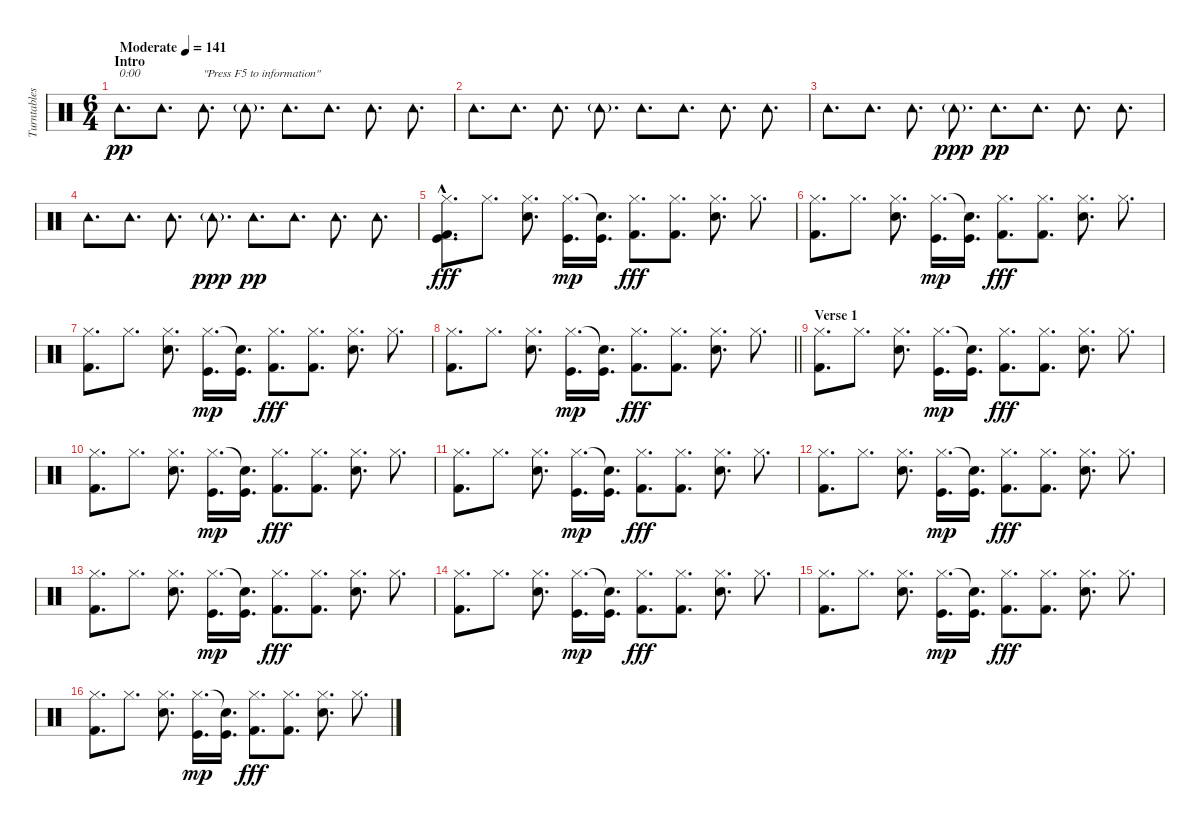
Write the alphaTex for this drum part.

\track ("Turntables" "Turntables") {instrument percussion}
\staff {score}
\articulation defaults
\ts (6 4)
\section ("" "Intro")
\tempo (141 "Moderate")
\clef neutral
\ks c "Tambourine (hit)".8{d txt "0:00" dy pp} "Tambourine (hit)".8{d} "Tambourine (hit)".8{d txt "\"Press F5 to information\""} "Tambourine (hit)"{g}.8{d} "Tambourine (hit)".8{d} "Tambourine (hit)".8{d} "Tambourine (hit)".8{d} "Tambourine (hit)".8{d}
|
"Tambourine (hit)".8{d} "Tambourine (hit)".8{d} "Tambourine (hit)".8{d} "Tambourine (hit)"{g}.8{d} "Tambourine (hit)".8{d} "Tambourine (hit)".8{d} "Tambourine (hit)".8{d} "Tambourine (hit)".8{d} |
"Tambourine (hit)".8{d} "Tambourine (hit)".8{d} "Tambourine (hit)".8{d} "Tambourine (hit)"{g}.8{d dy ppp} "Tambourine (hit)".8{d dy pp} "Tambourine (hit)".8{d} "Tambourine (hit)".8{d} "Tambourine (hit)".8{d} |
"Tambourine (hit)".8{d} "Tambourine (hit)".8{d} "Tambourine (hit)".8{d} "Tambourine (hit)"{g}.8{d dy ppp} "Tambourine (hit)".8{d dy pp} "Tambourine (hit)".8{d} "Tambourine (hit)".8{d} "Tambourine (hit)".8{d} |
("Hi-Hat (closed)" "Kick (hit)"{hac} "Kick (hit) 2"{hac}).8{d dy fff} "Hi-Hat (closed)".8{d} ("Hi-Hat (closed)" "Electric Snare (hit)").8{d} ("Hi-Hat (closed)" "Kick (hit)").16{d dy mp} ("Snare (hit)"{t} "Kick (hit)").16{d} ("Hi-Hat (closed)" "Kick (hit) 2").8{d dy fff} ("Hi-Hat (closed)" "Kick (hit) 2").8{d} ("Hi-Hat (closed)" "Electric Snare (hit)").8{d} "Hi-Hat (closed)".8{d} |
("Hi-Hat (closed)" "Kick (hit) 2").8{d} "Hi-Hat (closed)".8{d} ("Hi-Hat (closed)" "Electric Snare (hit)").8{d} ("Hi-Hat (closed)" "Kick (hit)").16{d dy mp} ("Snare (hit)"{t} "Kick (hit)").16{d} ("Hi-Hat (closed)" "Kick (hit) 2").8{d dy fff} ("Hi-Hat (closed)" "Kick (hit) 2").8{d} ("Hi-Hat (closed)" "Electric Snare (hit)").8{d} "Hi-Hat (closed)".8{d} |
("Hi-Hat (closed)" "Kick (hit) 2").8{d} "Hi-Hat (closed)".8{d} ("Hi-Hat (closed)" "Electric Snare (hit)").8{d} ("Hi-Hat (closed)" "Kick (hit)").16{d dy mp} ("Snare (hit)"{t} "Kick (hit)").16{d} ("Hi-Hat (closed)" "Kick (hit) 2").8{d dy fff} ("Hi-Hat (closed)" "Kick (hit) 2").8{d} ("Hi-Hat (closed)" "Electric Snare (hit)").8{d} "Hi-Hat (closed)".8{d} |
\barLineRight lightlight
("Hi-Hat (closed)" "Kick (hit) 2").8{d} "Hi-Hat (closed)".8{d} ("Hi-Hat (closed)" "Electric Snare (hit)").8{d} ("Hi-Hat (closed)" "Kick (hit)").16{d dy mp} ("Snare (hit)"{t} "Kick (hit)").16{d} ("Hi-Hat (closed)" "Kick (hit) 2").8{d dy fff} ("Hi-Hat (closed)" "Kick (hit) 2").8{d} ("Hi-Hat (closed)" "Electric Snare (hit)").8{d} "Hi-Hat (closed)".8{d} |
\section ("" "Verse 1")
("Hi-Hat (closed)" "Kick (hit) 2").8{d} "Hi-Hat (closed)".8{d} ("Hi-Hat (closed)" "Electric Snare (hit)").8{d} ("Hi-Hat (closed)" "Kick (hit)").16{d dy mp} ("Snare (hit)"{t} "Kick (hit)").16{d} ("Hi-Hat (closed)" "Kick (hit) 2").8{d dy fff} ("Hi-Hat (closed)" "Kick (hit) 2").8{d} ("Hi-Hat (closed)" "Electric Snare (hit)").8{d} "Hi-Hat (closed)".8{d} |
("Hi-Hat (closed)" "Kick (hit) 2").8{d} "Hi-Hat (closed)".8{d} ("Hi-Hat (closed)" "Electric Snare (hit)").8{d} ("Hi-Hat (closed)" "Kick (hit)").16{d dy mp} ("Snare (hit)"{t} "Kick (hit)").16{d} ("Hi-Hat (closed)" "Kick (hit) 2").8{d dy fff} ("Hi-Hat (closed)" "Kick (hit) 2").8{d} ("Hi-Hat (closed)" "Electric Snare (hit)").8{d} "Hi-Hat (closed)".8{d} |
("Hi-Hat (closed)" "Kick (hit) 2").8{d} "Hi-Hat (closed)".8{d} ("Hi-Hat (closed)" "Electric Snare (hit)").8{d} ("Hi-Hat (closed)" "Kick (hit)").16{d dy mp} ("Snare (hit)"{t} "Kick (hit)").16{d} ("Hi-Hat (closed)" "Kick (hit) 2").8{d dy fff} ("Hi-Hat (closed)" "Kick (hit) 2").8{d} ("Hi-Hat (closed)" "Electric Snare (hit)").8{d} "Hi-Hat (closed)".8{d} |
("Hi-Hat (closed)" "Kick (hit) 2").8{d} "Hi-Hat (closed)".8{d} ("Hi-Hat (closed)" "Electric Snare (hit)").8{d} ("Hi-Hat (closed)" "Kick (hit)").16{d dy mp} ("Snare (hit)"{t} "Kick (hit)").16{d} ("Hi-Hat (closed)" "Kick (hit) 2").8{d dy fff} ("Hi-Hat (closed)" "Kick (hit) 2").8{d} ("Hi-Hat (closed)" "Electric Snare (hit)").8{d} "Hi-Hat (closed)".8{d} |
("Hi-Hat (closed)" "Kick (hit) 2").8{d} "Hi-Hat (closed)".8{d} ("Hi-Hat (closed)" "Electric Snare (hit)").8{d} ("Hi-Hat (closed)" "Kick (hit)").16{d dy mp} ("Snare (hit)"{t} "Kick (hit)").16{d} ("Hi-Hat (closed)" "Kick (hit) 2").8{d dy fff} ("Hi-Hat (closed)" "Kick (hit) 2").8{d} ("Hi-Hat (closed)" "Electric Snare (hit)").8{d} "Hi-Hat (closed)".8{d} |
("Hi-Hat (closed)" "Kick (hit) 2").8{d} "Hi-Hat (closed)".8{d} ("Hi-Hat (closed)" "Electric Snare (hit)").8{d} ("Hi-Hat (closed)" "Kick (hit)").16{d dy mp} ("Snare (hit)"{t} "Kick (hit)").16{d} ("Hi-Hat (closed)" "Kick (hit) 2").8{d dy fff} ("Hi-Hat (closed)" "Kick (hit) 2").8{d} ("Hi-Hat (closed)" "Electric Snare (hit)").8{d} "Hi-Hat (closed)".8{d} |
("Hi-Hat (closed)" "Kick (hit) 2").8{d} "Hi-Hat (closed)".8{d} ("Hi-Hat (closed)" "Electric Snare (hit)").8{d} ("Hi-Hat (closed)" "Kick (hit)").16{d dy mp} ("Snare (hit)"{t} "Kick (hit)").16{d} ("Hi-Hat (closed)" "Kick (hit) 2").8{d dy fff} ("Hi-Hat (closed)" "Kick (hit) 2").8{d} ("Hi-Hat (closed)" "Electric Snare (hit)").8{d} "Hi-Hat (closed)".8{d} |
("Hi-Hat (closed)" "Kick (hit) 2").8{d} "Hi-Hat (closed)".8{d} ("Hi-Hat (closed)" "Electric Snare (hit)").8{d} ("Hi-Hat (closed)" "Kick (hit)").16{d dy mp} ("Snare (hit)"{t} "Kick (hit)").16{d} ("Hi-Hat (closed)" "Kick (hit) 2").8{d dy fff} ("Hi-Hat (closed)" "Kick (hit) 2").8{d} ("Hi-Hat (closed)" "Electric Snare (hit)").8{d} "Hi-Hat (closed)".8{d}
